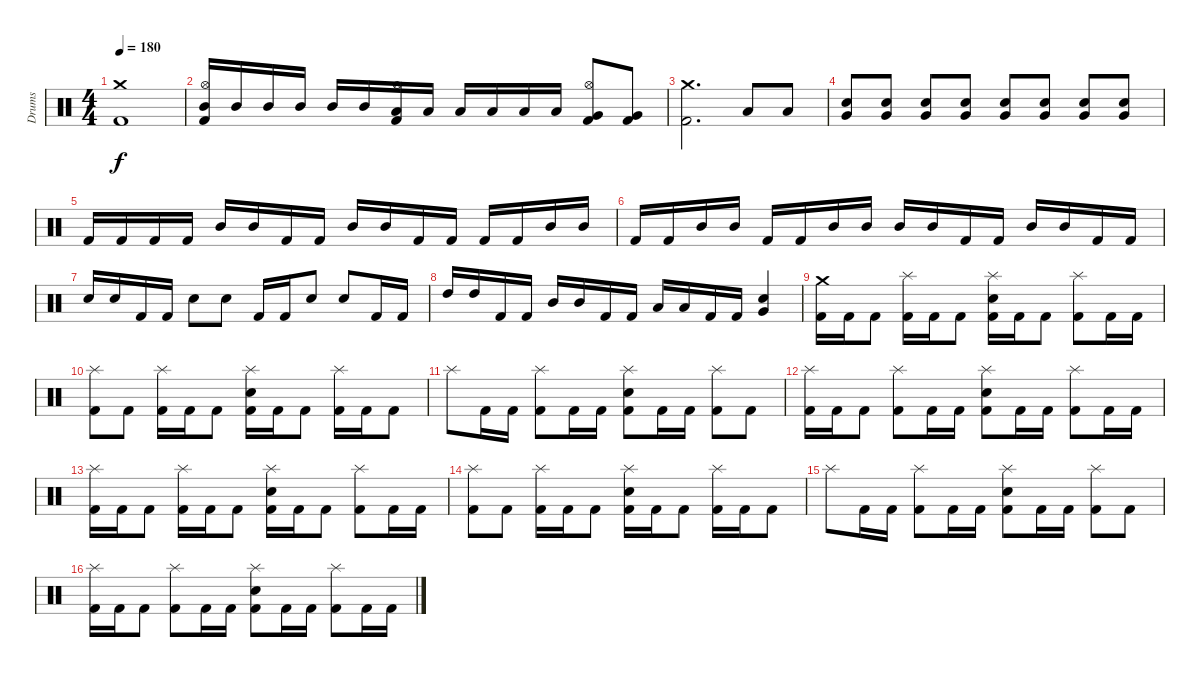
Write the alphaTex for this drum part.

\track ("Drums" "Drums") {instrument percussion}
\staff {score}
\articulation defaults
\ts (4 4)
\tempo 180
\clef neutral
\ks c
("Crash medium (hit)" "Kick (hit) 2").1{dy f} |
("Hi-Hat (open)" "Mid Tom (hit)" "Kick (hit) 2").16 "Mid Tom (hit)".16 "Mid Tom (hit)".16 "Mid Tom (hit)".16 "Mid Tom (hit)".16 "Mid Tom (hit)".16 ("Hi-Hat (open)" "Low Tom (hit)" "Kick (hit) 2").16 "Low Tom (hit)".16 "Low Tom (hit)".16 "Low Tom (hit)".16 "Low Tom (hit)".16 "Low Tom (hit)".16 ("Hi-Hat (open)" "Very Low Tom (hit)" "Kick (hit) 2").8 ("Very Low Tom (hit)" "Kick (hit) 2").8 |
("Crash medium (hit)" "Kick (hit) 2").2{d} "Low Tom (hit)".8 "Low Tom (hit)".8 |
("Very Low Tom (hit)" "Electric Snare (hit)").8 ("Very Low Tom (hit)" "Electric Snare (hit)").8 ("Very Low Tom (hit)" "Electric Snare (hit)").8 ("Very Low Tom (hit)" "Electric Snare (hit)").8 ("Very Low Tom (hit)" "Electric Snare (hit)").8 ("Very Low Tom (hit)" "Electric Snare (hit)").8 ("Very Low Tom (hit)" "Electric Snare (hit)").8 ("Very Low Tom (hit)" "Electric Snare (hit)").8 |
"Kick (hit) 2".16 "Kick (hit) 2".16 "Kick (hit) 2".16 "Kick (hit) 2".16 "Mid Tom (hit)".16 "Mid Tom (hit)".16 "Kick (hit) 2".16 "Kick (hit) 2".16 "Mid Tom (hit)".16 "Mid Tom (hit)".16 "Kick (hit) 2".16 "Kick (hit) 2".16 "Kick (hit) 2".16 "Kick (hit) 2".16 "Mid Tom (hit)".16 "Mid Tom (hit)".16 |
"Kick (hit) 2".16 "Kick (hit) 2".16 "Mid Tom (hit)".16 "Mid Tom (hit)".16 "Kick (hit) 2".16 "Kick (hit) 2".16 "Mid Tom (hit)".16 "Mid Tom (hit)".16 "Mid Tom (hit)".16 "Mid Tom (hit)".16 "Kick (hit) 2".16 "Kick (hit) 2".16 "Mid Tom (hit)".16 "Mid Tom (hit)".16 "Kick (hit) 2".16 "Kick (hit) 2".16 |
"Electric Snare (hit)".16 "Electric Snare (hit)".16 "Kick (hit) 2".16 "Kick (hit) 2".16 "Electric Snare (hit)".8 "Electric Snare (hit)".8 "Kick (hit) 2".16 "Kick (hit) 2".16 "Electric Snare (hit)".8 "Electric Snare (hit)".8 "Kick (hit) 2".16 "Kick (hit) 2".16 |
"High Tom (hit)".16 "High Tom (hit)".16 "Kick (hit) 2".16 "Kick (hit) 2".16 "Mid Tom (hit)".16 "Mid Tom (hit)".16 "Kick (hit) 2".16 "Kick (hit) 2".16 "Low Tom (hit)".16 "Low Tom (hit)".16 "Kick (hit) 2".16 "Kick (hit) 2".16 ("Very Low Tom (hit)" "Electric Snare (hit)").4 |
("Crash medium (hit)" "Kick (hit) 2").16 "Kick (hit) 2".16 "Kick (hit) 2".8 ("Splash (hit)" "Kick (hit) 2").16 "Kick (hit) 2".16 "Kick (hit) 2".8 ("Splash (hit)" "Electric Snare (hit)" "Kick (hit) 2").16 "Kick (hit) 2".16 "Kick (hit) 2".8 ("Splash (hit)" "Kick (hit) 2").8 "Kick (hit) 2".16 "Kick (hit) 2".16 |
("Splash (hit)" "Kick (hit) 2").8 "Kick (hit) 2".8 ("Splash (hit)" "Kick (hit) 2").16 "Kick (hit) 2".16 "Kick (hit) 2".8 ("Splash (hit)" "Electric Snare (hit)" "Kick (hit) 2").16 "Kick (hit) 2".16 "Kick (hit) 2".8 ("Splash (hit)" "Kick (hit) 2").16 "Kick (hit) 2".16 "Kick (hit) 2".8 |
"Splash (hit)".8 "Kick (hit) 2".16 "Kick (hit) 2".16 ("Splash (hit)" "Kick (hit) 2").8 "Kick (hit) 2".16 "Kick (hit) 2".16 ("Splash (hit)" "Electric Snare (hit)" "Kick (hit) 2").8 "Kick (hit) 2".16 "Kick (hit) 2".16 ("Splash (hit)" "Kick (hit) 2").8 "Kick (hit) 2".8 |
("Splash (hit)" "Kick (hit) 2").16 "Kick (hit) 2".16 "Kick (hit) 2".8 ("Splash (hit)" "Kick (hit) 2").8 "Kick (hit) 2".16 "Kick (hit) 2".16 ("Splash (hit)" "Electric Snare (hit)" "Kick (hit) 2").8 "Kick (hit) 2".16 "Kick (hit) 2".16 ("Splash (hit)" "Kick (hit) 2").8 "Kick (hit) 2".16 "Kick (hit) 2".16 |
("Splash (hit)" "Kick (hit) 2").16 "Kick (hit) 2".16 "Kick (hit) 2".8 ("Splash (hit)" "Kick (hit) 2").16 "Kick (hit) 2".16 "Kick (hit) 2".8 ("Splash (hit)" "Electric Snare (hit)" "Kick (hit) 2").16 "Kick (hit) 2".16 "Kick (hit) 2".8 ("Splash (hit)" "Kick (hit) 2").8 "Kick (hit) 2".16 "Kick (hit) 2".16 |
("Splash (hit)" "Kick (hit) 2").8 "Kick (hit) 2".8 ("Splash (hit)" "Kick (hit) 2").16 "Kick (hit) 2".16 "Kick (hit) 2".8 ("Splash (hit)" "Electric Snare (hit)" "Kick (hit) 2").16 "Kick (hit) 2".16 "Kick (hit) 2".8 ("Splash (hit)" "Kick (hit) 2").16 "Kick (hit) 2".16 "Kick (hit) 2".8 |
"Splash (hit)".8 "Kick (hit) 2".16 "Kick (hit) 2".16 ("Splash (hit)" "Kick (hit) 2").8 "Kick (hit) 2".16 "Kick (hit) 2".16 ("Splash (hit)" "Electric Snare (hit)" "Kick (hit) 2").8 "Kick (hit) 2".16 "Kick (hit) 2".16 ("Splash (hit)" "Kick (hit) 2").8 "Kick (hit) 2".8 |
("Splash (hit)" "Kick (hit) 2").16 "Kick (hit) 2".16 "Kick (hit) 2".8 ("Splash (hit)" "Kick (hit) 2").8 "Kick (hit) 2".16 "Kick (hit) 2".16 ("Splash (hit)" "Electric Snare (hit)" "Kick (hit) 2").8 "Kick (hit) 2".16 "Kick (hit) 2".16 ("Splash (hit)" "Kick (hit) 2").8 "Kick (hit) 2".16 "Kick (hit) 2".16
